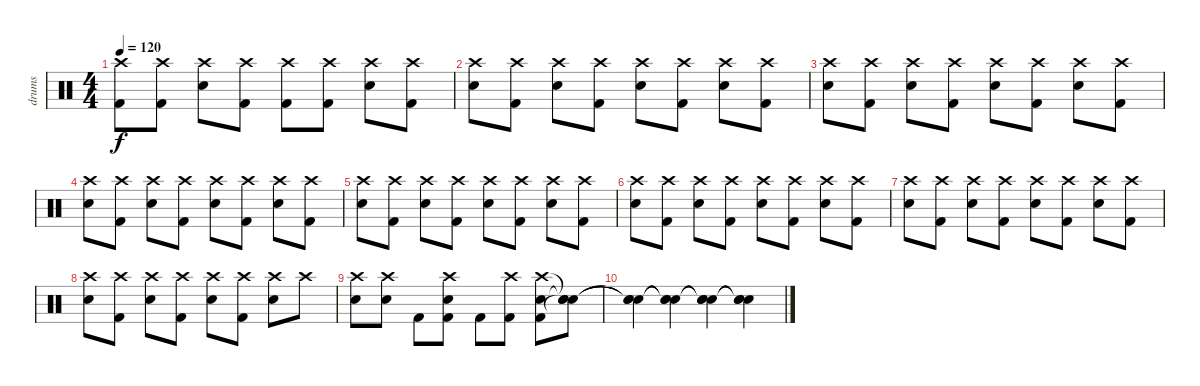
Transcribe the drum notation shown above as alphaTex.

\track ("drums" "drums") {instrument percussion}
\staff {score}
\articulation defaults
\ts (4 4)
\tempo 120
\clef neutral
\ks c
("Crash high (hit)" "Kick (hit) 2").8{dy f} ("Crash high (hit)" "Kick (hit) 2").8 ("Snare (hit) 2" "Crash high (hit)").8 ("Crash high (hit)" "Kick (hit) 2").8 ("Kick (hit) 2" "Crash high (hit)").8 ("Crash high (hit)" "Kick (hit) 2").8 ("Snare (hit) 2" "Crash high (hit)").8 ("Crash high (hit)" "Kick (hit) 2").8 |
("Crash high (hit)" "Snare (hit) 2").8 ("Crash high (hit)" "Kick (hit) 2").8 ("Crash high (hit)" "Snare (hit) 2").8 ("Crash high (hit)" "Kick (hit) 2").8 ("Crash high (hit)" "Snare (hit) 2").8 ("Crash high (hit)" "Kick (hit) 2").8 ("Crash high (hit)" "Snare (hit) 2").8 ("Crash high (hit)" "Kick (hit) 2").8 |
("Crash high (hit)" "Snare (hit) 2").8 ("Crash high (hit)" "Kick (hit) 2").8 ("Crash high (hit)" "Snare (hit) 2").8 ("Crash high (hit)" "Kick (hit) 2").8 ("Crash high (hit)" "Snare (hit) 2").8 ("Crash high (hit)" "Kick (hit) 2").8 ("Crash high (hit)" "Snare (hit) 2").8 ("Crash high (hit)" "Kick (hit) 2").8 |
("Crash high (hit)" "Snare (hit) 2").8 ("Crash high (hit)" "Kick (hit) 2").8 ("Crash high (hit)" "Snare (hit) 2").8 ("Crash high (hit)" "Kick (hit) 2").8 ("Crash high (hit)" "Snare (hit) 2").8 ("Crash high (hit)" "Kick (hit) 2").8 ("Crash high (hit)" "Snare (hit) 2").8 ("Crash high (hit)" "Kick (hit) 2").8 |
("Crash high (hit)" "Snare (hit) 2").8 ("Crash high (hit)" "Kick (hit) 2").8 ("Crash high (hit)" "Snare (hit) 2").8 ("Crash high (hit)" "Kick (hit) 2").8 ("Crash high (hit)" "Snare (hit) 2").8 ("Crash high (hit)" "Kick (hit) 2").8 ("Crash high (hit)" "Snare (hit) 2").8 ("Crash high (hit)" "Kick (hit) 2").8 |
("Crash high (hit)" "Snare (hit) 2").8 ("Crash high (hit)" "Kick (hit) 2").8 ("Crash high (hit)" "Snare (hit) 2").8 ("Crash high (hit)" "Kick (hit) 2").8 ("Crash high (hit)" "Snare (hit) 2").8 ("Crash high (hit)" "Kick (hit) 2").8 ("Crash high (hit)" "Snare (hit) 2").8 ("Crash high (hit)" "Kick (hit) 2").8 |
("Crash high (hit)" "Snare (hit) 2").8 ("Crash high (hit)" "Kick (hit) 2").8 ("Crash high (hit)" "Snare (hit) 2").8 ("Crash high (hit)" "Kick (hit) 2").8 ("Crash high (hit)" "Snare (hit) 2").8 ("Crash high (hit)" "Kick (hit) 2").8 ("Crash high (hit)" "Snare (hit) 2").8 ("Crash high (hit)" "Kick (hit) 2").8 |
("Crash high (hit)" "Snare (hit) 2").8 ("Crash high (hit)" "Kick (hit) 2").8 ("Crash high (hit)" "Snare (hit) 2").8 ("Crash high (hit)" "Kick (hit) 2").8 ("Crash high (hit)" "Snare (hit) 2").8 ("Crash high (hit)" "Kick (hit) 2").8 ("Snare (hit) 2" "Crash high (hit)").8 "Crash high (hit)".8 |
("Snare (hit) 2" "Crash high (hit)").8 ("Snare (hit) 2" "Crash high (hit)").8 "Kick (hit) 2".8 ("Kick (hit) 2" "Snare (hit) 2" "Crash high (hit)").8 "Kick (hit) 2".8 ("Kick (hit) 2" "Crash high (hit)").8 ("Kick (hit) 2" "Snare (hit) 2" "Crash high (hit)").8 ("Snare (hit)"{t} "Snare (hit)"{t} "Snare (hit)"{t}).8 |
("Snare (hit)"{t} "Snare (hit)"{t} "Snare (hit)"{t}).4 ("Snare (hit)"{t} "Snare (hit)"{t} "Snare (hit)"{t}).4 ("Snare (hit)"{t} "Snare (hit)"{t} "Snare (hit)"{t}).4 ("Snare (hit)"{t} "Snare (hit)"{t} "Snare (hit)"{t}).4
